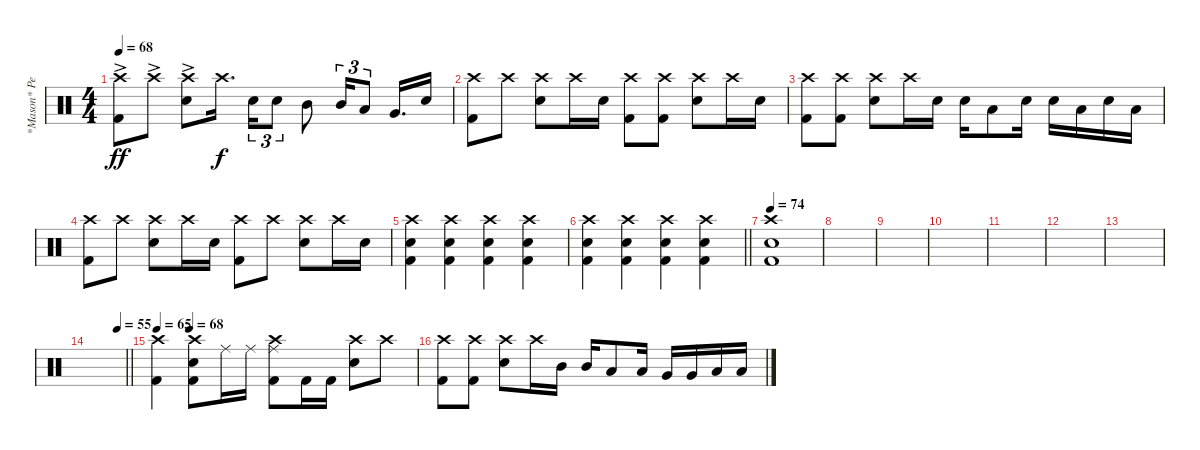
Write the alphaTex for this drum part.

\track ("*Mason* Percussion" "*Mason* Pe") {instrument percussion}
\staff {score}
\articulation defaults
\ts (4 4)
\tempo 68
\clef neutral
\ks c
("Crash high (hit)"{ac} "Kick (hit) 2"{ac}).8{dy ff} "Crash high (hit)"{ac}.8 ("Crash high (hit)"{ac} "Snare (hit) 2").8 "Crash high (hit)".16{d dy f} "Snare (hit) 2".16{tu (3 2)} "Snare (hit) 2".8{tu (3 2)} "Mid Tom (hit)".8 "Mid Tom (hit)".16{tu (3 2)} "Low Tom (hit)".8{tu (3 2)} "Very Low Tom (hit)".16{d} "Snare (hit) 2".16 |
("Crash high (hit)" "Kick (hit) 2").8 "Crash high (hit)".8 ("Crash high (hit)" "Snare (hit) 2").8 "Crash high (hit)".16 "Snare (hit) 2".16 ("Crash high (hit)" "Kick (hit) 2").8 ("Crash high (hit)" "Kick (hit) 2").8 ("Crash high (hit)" "Snare (hit) 2").8 "Crash high (hit)".16 "Snare (hit) 2".16 |
("Crash high (hit)" "Kick (hit) 2").8 ("Crash high (hit)" "Kick (hit) 2").8 ("Crash high (hit)" "Snare (hit) 2").8 "Crash high (hit)".16 "Snare (hit) 2".16 "Snare (hit) 2".16 "Low Floor Tom (hit)".8 "Snare (hit) 2".16 "Snare (hit) 2".16 "Low Floor Tom (hit)".16 "Snare (hit) 2".16 "Low Floor Tom (hit)".16 |
("Crash high (hit)" "Kick (hit) 2").8 "Crash high (hit)".8 ("Crash high (hit)" "Snare (hit) 2").8 "Crash high (hit)".16 "Snare (hit) 2".16 ("Crash high (hit)" "Kick (hit) 2").8 "Crash high (hit)".8 ("Crash high (hit)" "Snare (hit) 2").8 "Crash high (hit)".16 "Snare (hit) 2".16 |
("Crash high (hit)" "Snare (hit) 2" "Kick (hit) 2").4 ("Crash high (hit)" "Snare (hit) 2" "Kick (hit) 2").4 ("Crash high (hit)" "Snare (hit) 2" "Kick (hit) 2").4 ("Crash high (hit)" "Snare (hit) 2" "Kick (hit) 2").4 |
\barLineRight lightlight
("Crash high (hit)" "Snare (hit) 2" "Kick (hit) 2").4 ("Crash high (hit)" "Snare (hit) 2" "Kick (hit) 2").4 ("Crash high (hit)" "Snare (hit) 2" "Kick (hit) 2").4 ("Crash high (hit)" "Snare (hit) 2" "Kick (hit) 2").4 |
\tempo 74
("Crash high (hit)" "Snare (hit) 2" "Kick (hit) 2").1 |
|
|
|
|
|
|
\tempo (55 0.78125)
\barLineRight lightlight
|
\tempo 65
\tempo (68 0.125)
("Crash high (hit)" "Kick (hit) 2").4 ("Crash high (hit)" "Snare (hit) 2" "Kick (hit) 2").8 "Ride (middle)".16 "Ride (middle)".16 ("Crash high (hit)" "Ride (middle)" "Kick (hit) 2").8 "Kick (hit) 2".16 "Kick (hit) 2".16 ("Crash high (hit)" "Snare (hit) 2").8 "Crash high (hit)".8 |
("Crash high (hit)" "Kick (hit) 2").8 ("Crash high (hit)" "Kick (hit) 2").8 ("Crash high (hit)" "Snare (hit) 2").8 "Crash high (hit)".16 "Mid Tom (hit)".16 "Mid Tom (hit)".16 "Low Tom (hit)".8 "Low Tom (hit)".16 "Very Low Tom (hit)".16 "Very Low Tom (hit)".16 "Low Floor Tom (hit)".16 "Low Floor Tom (hit)".16
